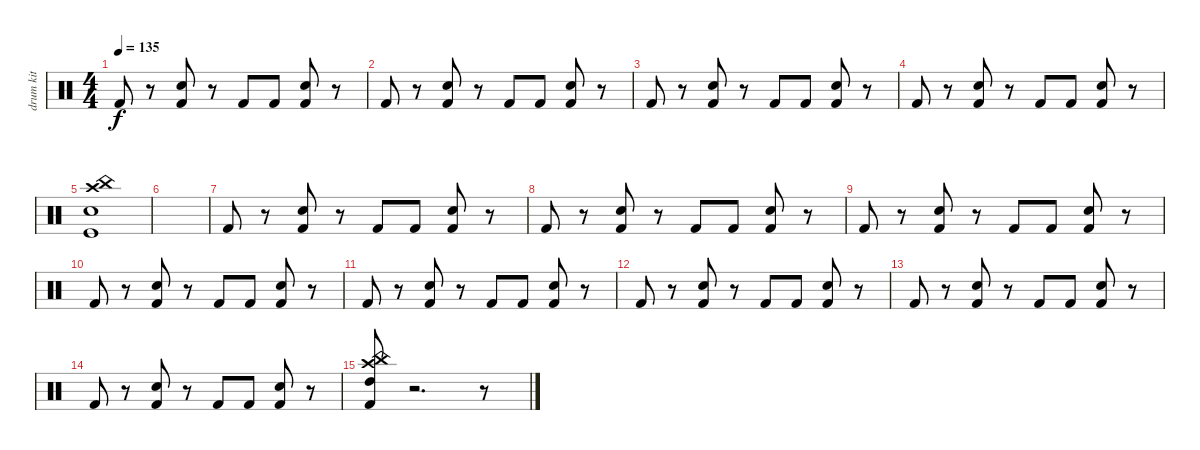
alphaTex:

\track ("drum kit" "drum kit") {instrument percussion}
\staff {score}
\articulation defaults
\ts (4 4)
\tempo 135
\clef neutral
\ks c "Kick (hit) 2".8{dy f}
r.8 ("Snare (hit) 2" "Kick (hit) 2").8 r.8 "Kick (hit) 2".8 "Kick (hit) 2".8 ("Snare (hit) 2" "Kick (hit) 2").8 r.8 |
"Kick (hit) 2".8 r.8 ("Snare (hit) 2" "Kick (hit) 2").8 r.8 "Kick (hit) 2".8 "Kick (hit) 2".8 ("Snare (hit) 2" "Kick (hit) 2").8 r.8 |
"Kick (hit) 2".8 r.8 ("Snare (hit) 2" "Kick (hit) 2").8 r.8 "Kick (hit) 2".8 "Kick (hit) 2".8 ("Snare (hit) 2" "Kick (hit) 2").8 r.8 |
"Kick (hit) 2".8 r.8 ("Snare (hit) 2" "Kick (hit) 2").8 r.8 "Kick (hit) 2".8 "Kick (hit) 2".8 ("Snare (hit) 2" "Kick (hit) 2").8 r.8 |
("Snare (hit) 2" "Crash high (hit)" "China (hit)" "Kick (hit)").1 |
|
"Kick (hit) 2".8 r.8 ("Snare (hit) 2" "Kick (hit) 2").8 r.8 "Kick (hit) 2".8 "Kick (hit) 2".8 ("Snare (hit) 2" "Kick (hit) 2").8 r.8 |
"Kick (hit) 2".8 r.8 ("Snare (hit) 2" "Kick (hit) 2").8 r.8 "Kick (hit) 2".8 "Kick (hit) 2".8 ("Snare (hit) 2" "Kick (hit) 2").8 r.8 |
"Kick (hit) 2".8 r.8 ("Snare (hit) 2" "Kick (hit) 2").8 r.8 "Kick (hit) 2".8 "Kick (hit) 2".8 ("Snare (hit) 2" "Kick (hit) 2").8 r.8 |
"Kick (hit) 2".8 r.8 ("Snare (hit) 2" "Kick (hit) 2").8 r.8 "Kick (hit) 2".8 "Kick (hit) 2".8 ("Snare (hit) 2" "Kick (hit) 2").8 r.8 |
"Kick (hit) 2".8 r.8 ("Snare (hit) 2" "Kick (hit) 2").8 r.8 "Kick (hit) 2".8 "Kick (hit) 2".8 ("Snare (hit) 2" "Kick (hit) 2").8 r.8 |
"Kick (hit) 2".8 r.8 ("Snare (hit) 2" "Kick (hit) 2").8 r.8 "Kick (hit) 2".8 "Kick (hit) 2".8 ("Snare (hit) 2" "Kick (hit) 2").8 r.8 |
"Kick (hit) 2".8 r.8 ("Snare (hit) 2" "Kick (hit) 2").8 r.8 "Kick (hit) 2".8 "Kick (hit) 2".8 ("Snare (hit) 2" "Kick (hit) 2").8 r.8 |
"Kick (hit) 2".8 r.8 ("Snare (hit) 2" "Kick (hit) 2").8 r.8 "Kick (hit) 2".8 "Kick (hit) 2".8 ("Snare (hit) 2" "Kick (hit) 2").8 r.8 |
("China (hit)" "High Tom (hit)" "Crash high (hit)" "Kick (hit) 2").8 r.2{d} r.8
